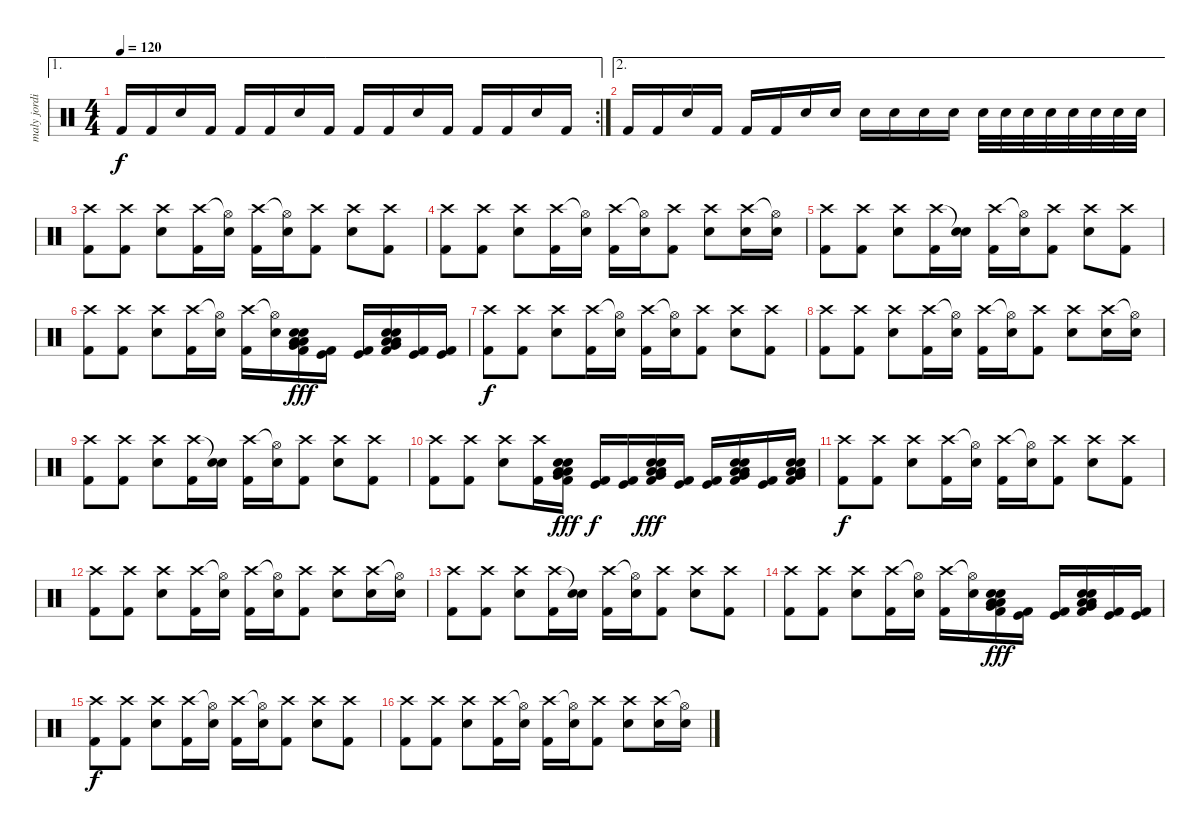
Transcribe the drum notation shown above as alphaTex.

\track ("maly jordison" "maly jordi") {instrument percussion}
\staff {score}
\articulation defaults
\ae 1
\rc 2
\ts (4 4)
\tempo 120
\clef neutral
\ks c "Kick (hit) 2".16{dy f} "Kick (hit) 2".16 "Electric Snare (hit)".16 "Kick (hit) 2".16 "Kick (hit) 2".16 "Kick (hit) 2".16 "Electric Snare (hit)".16 "Kick (hit) 2".16 "Kick (hit) 2".16 "Kick (hit) 2".16 "Electric Snare (hit)".16 "Kick (hit) 2".16 "Kick (hit) 2".16 "Kick (hit) 2".16 "Electric Snare (hit)".16 "Kick (hit) 2".16
|
\ae 2 "Kick (hit) 2".16 "Kick (hit) 2".16 "Electric Snare (hit)".16 "Kick (hit) 2".16 "Kick (hit) 2".16 "Kick (hit) 2".16 "Electric Snare (hit)".16 "Electric Snare (hit)".16 "Electric Snare (hit)".16 "Electric Snare (hit)".16 "Electric Snare (hit)".16 "Electric Snare (hit)".16 "Electric Snare (hit)".32 "Electric Snare (hit)".32 "Electric Snare (hit)".32 "Electric Snare (hit)".32 "Electric Snare (hit)".32 "Electric Snare (hit)".32 "Electric Snare (hit)".32 "Electric Snare (hit)".32
|
("Crash high (hit)" "Kick (hit) 2").8 ("Crash high (hit)" "Kick (hit) 2").8 ("Crash high (hit)" "Electric Snare (hit)").8 ("Crash high (hit)" "Kick (hit) 2").16 ("Hi-Hat (open)"{t} "Electric Snare (hit)").16 ("Crash high (hit)" "Kick (hit) 2").16 ("Hi-Hat (open)"{t} "Electric Snare (hit)").16 ("Crash high (hit)" "Kick (hit) 2").8 ("Crash high (hit)" "Electric Snare (hit)").8 ("Crash high (hit)" "Kick (hit) 2").8 |
("Crash high (hit)" "Kick (hit) 2").8 ("Crash high (hit)" "Kick (hit) 2").8 ("Crash high (hit)" "Electric Snare (hit)").8 ("Crash high (hit)" "Kick (hit) 2").16 ("Hi-Hat (open)"{t} "Electric Snare (hit)").16 ("Crash high (hit)" "Kick (hit) 2").16 ("Hi-Hat (open)"{t} "Electric Snare (hit)").16 ("Crash high (hit)" "Kick (hit) 2").8 ("Crash high (hit)" "Electric Snare (hit)").8 ("Crash high (hit)" "Electric Snare (hit)").16 ("Hi-Hat (open)"{t} "Electric Snare (hit)").16 |
("Crash high (hit)" "Kick (hit) 2").8 ("Crash high (hit)" "Kick (hit) 2").8 ("Crash high (hit)" "Electric Snare (hit)").8 ("Crash high (hit)" "Kick (hit) 2").16 ("Snare (hit)"{t} "Electric Snare (hit)").16 ("Crash high (hit)" "Kick (hit) 2").16 ("Hi-Hat (open)"{t} "Electric Snare (hit)").16 ("Crash high (hit)" "Kick (hit) 2").8 ("Crash high (hit)" "Electric Snare (hit)").8 ("Crash high (hit)" "Kick (hit) 2").8 |
("Crash high (hit)" "Kick (hit) 2").8 ("Crash high (hit)" "Kick (hit) 2").8 ("Crash high (hit)" "Electric Snare (hit)").8 ("Crash high (hit)" "Kick (hit) 2").16 ("Hi-Hat (open)"{t} "Electric Snare (hit)").16 ("Crash high (hit)" "Kick (hit) 2").16 ("Hi-Hat (open)"{t} "Electric Snare (hit)").16 ("Kick (hit) 2" "Very Low Tom (hit)" "Low Floor Tom (hit)" "Low Floor Tom (hit)" "Electric Snare (hit)" "Electric Snare (hit)").16{dy fff} ("Kick (hit)" "Kick (hit) 2").16 ("Kick (hit)" "Kick (hit) 2").16 ("Kick (hit) 2" "Very Low Tom (hit)" "Low Floor Tom (hit)" "Low Floor Tom (hit)" "Electric Snare (hit)" "Electric Snare (hit)").16 ("Kick (hit)" "Kick (hit) 2").16 ("Kick (hit)" "Kick (hit) 2").16 |
("Crash high (hit)" "Kick (hit) 2").8{dy f} ("Crash high (hit)" "Kick (hit) 2").8 ("Crash high (hit)" "Electric Snare (hit)").8 ("Crash high (hit)" "Kick (hit) 2").16 ("Hi-Hat (open)"{t} "Electric Snare (hit)").16 ("Crash high (hit)" "Kick (hit) 2").16 ("Hi-Hat (open)"{t} "Electric Snare (hit)").16 ("Crash high (hit)" "Kick (hit) 2").8 ("Crash high (hit)" "Electric Snare (hit)").8 ("Crash high (hit)" "Kick (hit) 2").8 |
("Crash high (hit)" "Kick (hit) 2").8 ("Crash high (hit)" "Kick (hit) 2").8 ("Crash high (hit)" "Electric Snare (hit)").8 ("Crash high (hit)" "Kick (hit) 2").16 ("Hi-Hat (open)"{t} "Electric Snare (hit)").16 ("Crash high (hit)" "Kick (hit) 2").16 ("Hi-Hat (open)"{t} "Electric Snare (hit)").16 ("Crash high (hit)" "Kick (hit) 2").8 ("Crash high (hit)" "Electric Snare (hit)").8 ("Crash high (hit)" "Electric Snare (hit)").16 ("Hi-Hat (open)"{t} "Electric Snare (hit)").16 |
("Crash high (hit)" "Kick (hit) 2").8 ("Crash high (hit)" "Kick (hit) 2").8 ("Crash high (hit)" "Electric Snare (hit)").8 ("Crash high (hit)" "Kick (hit) 2").16 ("Snare (hit)"{t} "Electric Snare (hit)").16 ("Crash high (hit)" "Kick (hit) 2").16 ("Hi-Hat (open)"{t} "Electric Snare (hit)").16 ("Crash high (hit)" "Kick (hit) 2").8 ("Crash high (hit)" "Electric Snare (hit)").8 ("Crash high (hit)" "Kick (hit) 2").8 |
("Crash high (hit)" "Kick (hit) 2").8 ("Crash high (hit)" "Kick (hit) 2").8 ("Crash high (hit)" "Electric Snare (hit)").8 ("Crash high (hit)" "Kick (hit) 2").16 ("Kick (hit) 2" "Very Low Tom (hit)" "Low Floor Tom (hit)" "Low Floor Tom (hit)" "Electric Snare (hit)" "Electric Snare (hit)").16{dy fff} ("Kick (hit)" "Kick (hit) 2").16{dy f} ("Kick (hit)" "Kick (hit) 2").16 ("Kick (hit) 2" "Very Low Tom (hit)" "Low Floor Tom (hit)" "Low Floor Tom (hit)" "Electric Snare (hit)" "Electric Snare (hit)").16{dy fff} ("Kick (hit)" "Kick (hit) 2").16 ("Kick (hit)" "Kick (hit) 2").16 ("Kick (hit) 2" "Very Low Tom (hit)" "Low Floor Tom (hit)" "Low Floor Tom (hit)" "Electric Snare (hit)" "Electric Snare (hit)").16 ("Kick (hit)" "Kick (hit) 2").16 ("Kick (hit) 2" "Very Low Tom (hit)" "Low Floor Tom (hit)" "Low Floor Tom (hit)" "Electric Snare (hit)" "Electric Snare (hit)").16 |
("Crash high (hit)" "Kick (hit) 2").8{dy f} ("Crash high (hit)" "Kick (hit) 2").8 ("Crash high (hit)" "Electric Snare (hit)").8 ("Crash high (hit)" "Kick (hit) 2").16 ("Hi-Hat (open)"{t} "Electric Snare (hit)").16 ("Crash high (hit)" "Kick (hit) 2").16 ("Hi-Hat (open)"{t} "Electric Snare (hit)").16 ("Crash high (hit)" "Kick (hit) 2").8 ("Crash high (hit)" "Electric Snare (hit)").8 ("Crash high (hit)" "Kick (hit) 2").8 |
("Crash high (hit)" "Kick (hit) 2").8 ("Crash high (hit)" "Kick (hit) 2").8 ("Crash high (hit)" "Electric Snare (hit)").8 ("Crash high (hit)" "Kick (hit) 2").16 ("Hi-Hat (open)"{t} "Electric Snare (hit)").16 ("Crash high (hit)" "Kick (hit) 2").16 ("Hi-Hat (open)"{t} "Electric Snare (hit)").16 ("Crash high (hit)" "Kick (hit) 2").8 ("Crash high (hit)" "Electric Snare (hit)").8 ("Crash high (hit)" "Electric Snare (hit)").16 ("Hi-Hat (open)"{t} "Electric Snare (hit)").16 |
("Crash high (hit)" "Kick (hit) 2").8 ("Crash high (hit)" "Kick (hit) 2").8 ("Crash high (hit)" "Electric Snare (hit)").8 ("Crash high (hit)" "Kick (hit) 2").16 ("Snare (hit)"{t} "Electric Snare (hit)").16 ("Crash high (hit)" "Kick (hit) 2").16 ("Hi-Hat (open)"{t} "Electric Snare (hit)").16 ("Crash high (hit)" "Kick (hit) 2").8 ("Crash high (hit)" "Electric Snare (hit)").8 ("Crash high (hit)" "Kick (hit) 2").8 |
("Crash high (hit)" "Kick (hit) 2").8 ("Crash high (hit)" "Kick (hit) 2").8 ("Crash high (hit)" "Electric Snare (hit)").8 ("Crash high (hit)" "Kick (hit) 2").16 ("Hi-Hat (open)"{t} "Electric Snare (hit)").16 ("Crash high (hit)" "Kick (hit) 2").16 ("Hi-Hat (open)"{t} "Electric Snare (hit)").16 ("Kick (hit) 2" "Very Low Tom (hit)" "Low Floor Tom (hit)" "Low Floor Tom (hit)" "Electric Snare (hit)" "Electric Snare (hit)").16{dy fff} ("Kick (hit)" "Kick (hit) 2").16 ("Kick (hit)" "Kick (hit) 2").16 ("Kick (hit) 2" "Very Low Tom (hit)" "Low Floor Tom (hit)" "Low Floor Tom (hit)" "Electric Snare (hit)" "Electric Snare (hit)").16 ("Kick (hit)" "Kick (hit) 2").16 ("Kick (hit)" "Kick (hit) 2").16 |
("Crash high (hit)" "Kick (hit) 2").8{dy f} ("Crash high (hit)" "Kick (hit) 2").8 ("Crash high (hit)" "Electric Snare (hit)").8 ("Crash high (hit)" "Kick (hit) 2").16 ("Hi-Hat (open)"{t} "Electric Snare (hit)").16 ("Crash high (hit)" "Kick (hit) 2").16 ("Hi-Hat (open)"{t} "Electric Snare (hit)").16 ("Crash high (hit)" "Kick (hit) 2").8 ("Crash high (hit)" "Electric Snare (hit)").8 ("Crash high (hit)" "Kick (hit) 2").8 |
("Crash high (hit)" "Kick (hit) 2").8 ("Crash high (hit)" "Kick (hit) 2").8 ("Crash high (hit)" "Electric Snare (hit)").8 ("Crash high (hit)" "Kick (hit) 2").16 ("Hi-Hat (open)"{t} "Electric Snare (hit)").16 ("Crash high (hit)" "Kick (hit) 2").16 ("Hi-Hat (open)"{t} "Electric Snare (hit)").16 ("Crash high (hit)" "Kick (hit) 2").8 ("Crash high (hit)" "Electric Snare (hit)").8 ("Crash high (hit)" "Electric Snare (hit)").16 ("Hi-Hat (open)"{t} "Electric Snare (hit)").16
